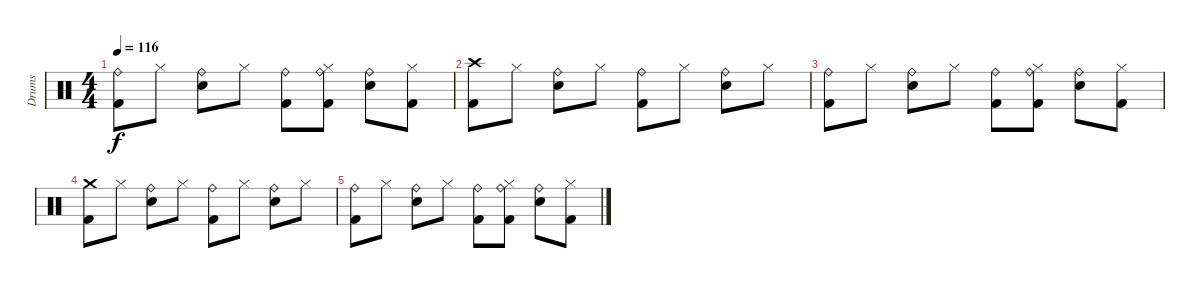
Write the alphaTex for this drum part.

\track ("Drums" "Drums") {instrument percussion}
\staff {score}
\articulation defaults
\ts (4 4)
\tempo 116
\clef neutral
\ks c
("Kick (hit) 2" "Ride (bell)").8{dy f} "Hi-Hat (closed)".8 ("Snare (hit) 2" "Ride (bell)").8 "Hi-Hat (closed)".8 ("Kick (hit) 2" "Ride (bell)").8 ("Kick (hit) 2" "Hi-Hat (closed)" "Ride (bell)").8 ("Snare (hit) 2" "Ride (bell)").8 ("Kick (hit) 2" "Hi-Hat (closed)").8 |
("Kick (hit) 2" "Crash high (hit)").8{volume 5} "Hi-Hat (closed)".8 ("Snare (hit) 2" "Ride (bell)").8 "Hi-Hat (closed)".8 ("Kick (hit) 2" "Ride (bell)").8 "Hi-Hat (closed)".8 ("Snare (hit) 2" "Ride (bell)").8 "Hi-Hat (closed)".8 |
("Kick (hit) 2" "Ride (bell)").8 "Hi-Hat (closed)".8 ("Snare (hit) 2" "Ride (bell)").8 "Hi-Hat (closed)".8 ("Kick (hit) 2" "Ride (bell)").8 ("Kick (hit) 2" "Hi-Hat (closed)" "Ride (bell)").8 ("Snare (hit) 2" "Ride (bell)").8 ("Kick (hit) 2" "Hi-Hat (closed)").8 |
("Kick (hit) 2" "Crash medium (hit)").8{volume 0} "Hi-Hat (closed)".8 ("Snare (hit) 2" "Ride (bell)").8 "Hi-Hat (closed)".8 ("Kick (hit) 2" "Ride (bell)").8 "Hi-Hat (closed)".8 ("Snare (hit) 2" "Ride (bell)").8 "Hi-Hat (closed)".8 |
("Kick (hit) 2" "Ride (bell)").8 "Hi-Hat (closed)".8 ("Snare (hit) 2" "Ride (bell)").8 "Hi-Hat (closed)".8 ("Kick (hit) 2" "Ride (bell)").8 ("Kick (hit) 2" "Hi-Hat (closed)" "Ride (bell)").8 ("Snare (hit) 2" "Ride (bell)").8 ("Kick (hit) 2" "Hi-Hat (closed)").8
